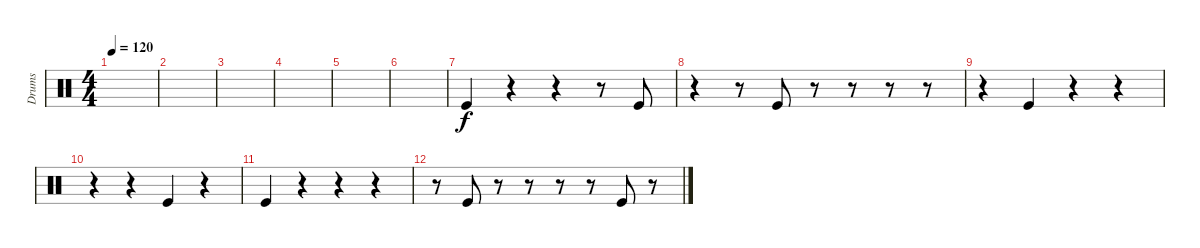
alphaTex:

\track ("Drums" "Drums") {instrument percussion}
\staff {score}
\articulation defaults
\ts (4 4)
\tempo 120
\clef neutral
\ks c
|
|
|
|
|
|
"Kick (hit)".4 r.4 r.4 r.8 "Kick (hit)".8 |
r.4 r.8 "Kick (hit)".8 r.8 r.8 r.8 r.8 |
r.4 "Kick (hit)".4 r.4 r.4 |
r.4 r.4 "Kick (hit)".4 r.4 |
"Kick (hit)".4 r.4 r.4 r.4 |
r.8 "Kick (hit)".8 r.8 r.8 r.8 r.8 "Kick (hit)".8 r.8
